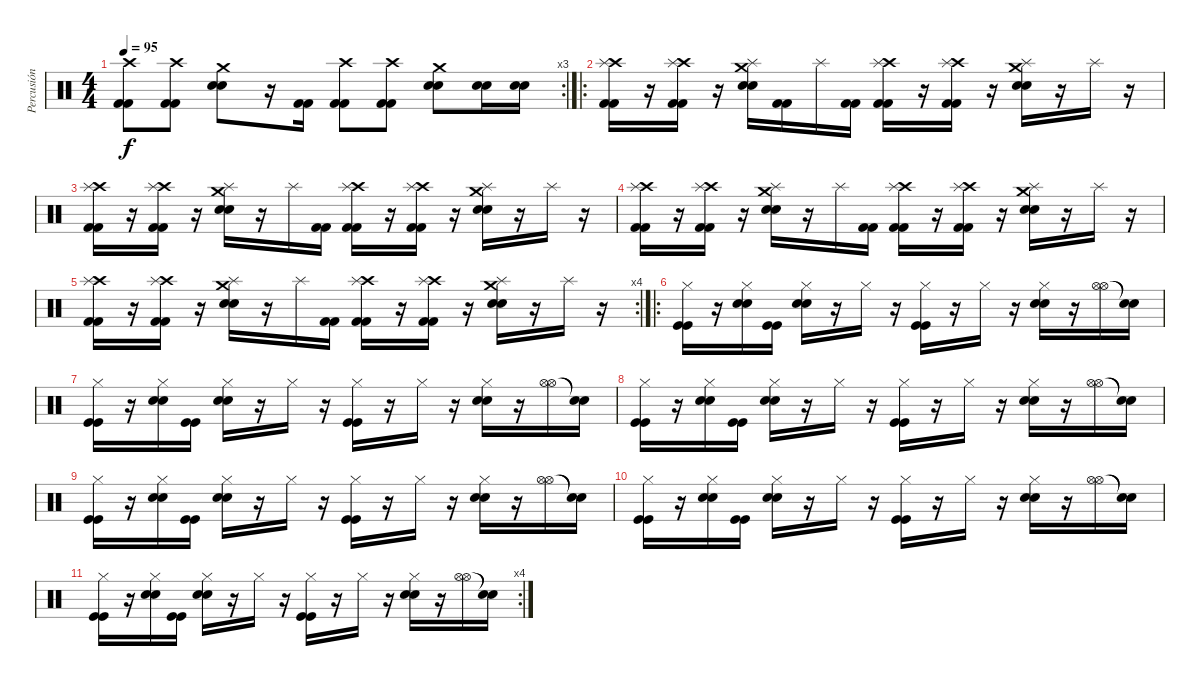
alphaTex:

\track ("Percusión" "Percusión") {instrument percussion}
\staff {score}
\articulation defaults
\rc 3
\ts (4 4)
\tempo 95
\clef neutral
\ks c
("Crash high (hit)" "Kick (hit) 2" "Kick (hit) 2").8{dy f} ("Crash high (hit)" "Kick (hit) 2" "Kick (hit) 2").8 ("Crash medium (hit)" "Electric Snare (hit)" "Electric Snare (hit)").8 r.16 ("Kick (hit) 2" "Kick (hit) 2").16 ("Crash high (hit)" "Kick (hit) 2" "Kick (hit) 2").8 ("Crash high (hit)" "Kick (hit) 2" "Kick (hit) 2").8 ("Crash medium (hit)" "Electric Snare (hit)" "Electric Snare (hit)").8 ("Electric Snare (hit)" "Electric Snare (hit)").16 ("Electric Snare (hit)" "Electric Snare (hit)").16 |
\ro
("Crash high (hit)" "Splash (hit)" "Kick (hit) 2" "Kick (hit) 2").16 r.16 ("Crash high (hit)" "Splash (hit)" "Kick (hit) 2" "Kick (hit) 2").16 r.16 ("Crash medium (hit)" "Splash (hit)" "Electric Snare (hit)" "Electric Snare (hit)").16 ("Kick (hit) 2" "Kick (hit) 2").16 "Splash (hit)".16 ("Kick (hit) 2" "Kick (hit) 2").16 ("Crash high (hit)" "Splash (hit)" "Kick (hit) 2" "Kick (hit) 2").16 r.16 ("Crash high (hit)" "Splash (hit)" "Kick (hit) 2" "Kick (hit) 2").16 r.16 ("Crash medium (hit)" "Splash (hit)" "Electric Snare (hit)" "Electric Snare (hit)").16 r.16 "Splash (hit)".16 r.16 |
("Crash high (hit)" "Splash (hit)" "Kick (hit) 2" "Kick (hit) 2").16 r.16 ("Crash high (hit)" "Splash (hit)" "Kick (hit) 2" "Kick (hit) 2").16 r.16 ("Crash medium (hit)" "Splash (hit)" "Electric Snare (hit)" "Electric Snare (hit)").16 r.16 "Splash (hit)".16 ("Kick (hit) 2" "Kick (hit) 2").16 ("Crash high (hit)" "Splash (hit)" "Kick (hit) 2" "Kick (hit) 2").16 r.16 ("Crash high (hit)" "Splash (hit)" "Kick (hit) 2" "Kick (hit) 2").16 r.16 ("Crash medium (hit)" "Splash (hit)" "Electric Snare (hit)" "Electric Snare (hit)").16 r.16 "Splash (hit)".16 r.16 |
("Crash high (hit)" "Splash (hit)" "Kick (hit) 2" "Kick (hit) 2").16 r.16 ("Crash high (hit)" "Splash (hit)" "Kick (hit) 2" "Kick (hit) 2").16 r.16 ("Crash medium (hit)" "Splash (hit)" "Electric Snare (hit)" "Electric Snare (hit)").16 r.16 "Splash (hit)".16 ("Kick (hit) 2" "Kick (hit) 2").16 ("Crash high (hit)" "Splash (hit)" "Kick (hit) 2" "Kick (hit) 2").16 r.16 ("Crash high (hit)" "Splash (hit)" "Kick (hit) 2" "Kick (hit) 2").16 r.16 ("Crash medium (hit)" "Splash (hit)" "Electric Snare (hit)" "Electric Snare (hit)").16 r.16 "Splash (hit)".16 r.16 |
\rc 4
("Crash high (hit)" "Splash (hit)" "Kick (hit) 2" "Kick (hit) 2").16 r.16 ("Crash high (hit)" "Splash (hit)" "Kick (hit) 2" "Kick (hit) 2").16 r.16 ("Crash medium (hit)" "Splash (hit)" "Electric Snare (hit)" "Electric Snare (hit)").16 r.16 "Splash (hit)".16 ("Kick (hit) 2" "Kick (hit) 2").16 ("Crash high (hit)" "Splash (hit)" "Kick (hit) 2" "Kick (hit) 2").16 r.16 ("Crash high (hit)" "Splash (hit)" "Kick (hit) 2" "Kick (hit) 2").16 r.16 ("Crash medium (hit)" "Splash (hit)" "Electric Snare (hit)" "Electric Snare (hit)").16 r.16 "Splash (hit)".16 r.16 |
\ro
("Hi-Hat (closed)" "Kick (hit)" "Kick (hit)").16 r.16 ("Hi-Hat (closed)" "Snare (hit)" "Snare (hit)").16 ("Kick (hit)" "Kick (hit)").16 ("Hi-Hat (closed)" "Snare (hit) 2" "Snare (hit) 2").16 r.16 "Hi-Hat (closed)".16 r.16 ("Hi-Hat (closed)" "Kick (hit)" "Kick (hit)").16 r.16 "Hi-Hat (closed)".16 r.16 ("Hi-Hat (closed)" "Snare (hit) 2" "Snare (hit) 2").16 r.16 ("Hi-Hat (open)" "Hi-Hat (open)").16 ("Snare (hit)"{t} "Snare (hit)"{t}).16 |
("Hi-Hat (closed)" "Kick (hit)" "Kick (hit)").16 r.16 ("Hi-Hat (closed)" "Snare (hit)" "Snare (hit)").16 ("Kick (hit)" "Kick (hit)").16 ("Hi-Hat (closed)" "Snare (hit) 2" "Snare (hit) 2").16 r.16 "Hi-Hat (closed)".16 r.16 ("Hi-Hat (closed)" "Kick (hit)" "Kick (hit)").16 r.16 "Hi-Hat (closed)".16 r.16 ("Hi-Hat (closed)" "Snare (hit) 2" "Snare (hit) 2").16 r.16 ("Hi-Hat (open)" "Hi-Hat (open)").16 ("Snare (hit)"{t} "Snare (hit)"{t}).16 |
("Hi-Hat (closed)" "Kick (hit)" "Kick (hit)").16 r.16 ("Hi-Hat (closed)" "Snare (hit)" "Snare (hit)").16 ("Kick (hit)" "Kick (hit)").16 ("Hi-Hat (closed)" "Snare (hit) 2" "Snare (hit) 2").16 r.16 "Hi-Hat (closed)".16 r.16 ("Hi-Hat (closed)" "Kick (hit)" "Kick (hit)").16 r.16 "Hi-Hat (closed)".16 r.16 ("Hi-Hat (closed)" "Snare (hit) 2" "Snare (hit) 2").16 r.16 ("Hi-Hat (open)" "Hi-Hat (open)").16 ("Snare (hit)"{t} "Snare (hit)"{t}).16 |
("Hi-Hat (closed)" "Kick (hit)" "Kick (hit)").16 r.16 ("Hi-Hat (closed)" "Snare (hit)" "Snare (hit)").16 ("Kick (hit)" "Kick (hit)").16 ("Hi-Hat (closed)" "Snare (hit) 2" "Snare (hit) 2").16 r.16 "Hi-Hat (closed)".16 r.16 ("Hi-Hat (closed)" "Kick (hit)" "Kick (hit)").16 r.16 "Hi-Hat (closed)".16 r.16 ("Hi-Hat (closed)" "Snare (hit) 2" "Snare (hit) 2").16 r.16 ("Hi-Hat (open)" "Hi-Hat (open)").16 ("Snare (hit)"{t} "Snare (hit)"{t}).16 |
("Hi-Hat (closed)" "Kick (hit)" "Kick (hit)").16 r.16 ("Hi-Hat (closed)" "Snare (hit)" "Snare (hit)").16 ("Kick (hit)" "Kick (hit)").16 ("Hi-Hat (closed)" "Snare (hit) 2" "Snare (hit) 2").16 r.16 "Hi-Hat (closed)".16 r.16 ("Hi-Hat (closed)" "Kick (hit)" "Kick (hit)").16 r.16 "Hi-Hat (closed)".16 r.16 ("Hi-Hat (closed)" "Snare (hit) 2" "Snare (hit) 2").16 r.16 ("Hi-Hat (open)" "Hi-Hat (open)").16 ("Snare (hit)"{t} "Snare (hit)"{t}).16 |
\rc 4
("Hi-Hat (closed)" "Kick (hit)" "Kick (hit)").16 r.16 ("Hi-Hat (closed)" "Snare (hit)" "Snare (hit)").16 ("Kick (hit)" "Kick (hit)").16 ("Hi-Hat (closed)" "Snare (hit) 2" "Snare (hit) 2").16 r.16 "Hi-Hat (closed)".16 r.16 ("Hi-Hat (closed)" "Kick (hit)" "Kick (hit)").16 r.16 "Hi-Hat (closed)".16 r.16 ("Hi-Hat (closed)" "Snare (hit) 2" "Snare (hit) 2").16 r.16 ("Hi-Hat (open)" "Hi-Hat (open)").16 ("Snare (hit)"{t} "Snare (hit)"{t}).16
